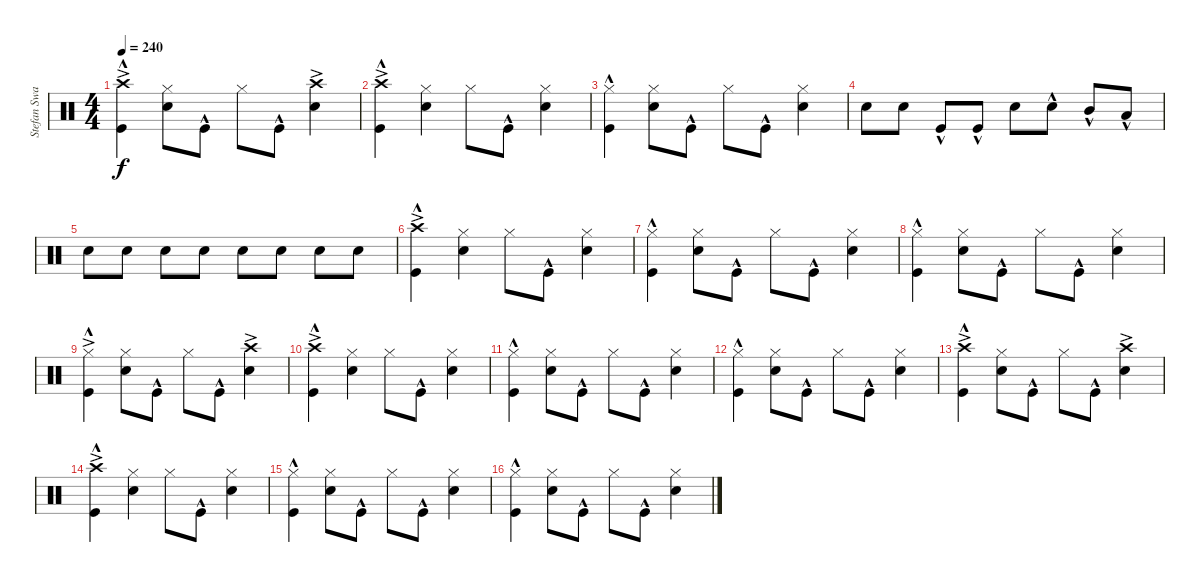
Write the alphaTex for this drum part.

\track ("Stefan Swarztmann" "Stefan Swa") {instrument percussion}
\staff {score}
\articulation defaults
\ts (4 4)
\tempo 240
\clef neutral
\ks c
("Crash high (hit)"{ac} "Kick (hit)"{hac}).4{dy f} ("Hi-Hat (closed)" "Snare (hit) 2").8 "Kick (hit)"{hac}.8 "Hi-Hat (closed)".8 "Kick (hit)"{hac}.8 ("Crash high (hit)"{ac} "Snare (hit) 2").4 |
("Crash high (hit)"{ac} "Kick (hit)"{hac}).4 ("Hi-Hat (closed)" "Snare (hit) 2").4 "Hi-Hat (closed)".8 "Kick (hit)"{hac}.8 ("Hi-Hat (closed)" "Snare (hit) 2").4 |
("Hi-Hat (closed)" "Kick (hit)"{hac}).4 ("Hi-Hat (closed)" "Snare (hit) 2").8 "Kick (hit)"{hac}.8 "Hi-Hat (closed)".8 "Kick (hit)"{hac}.8 ("Hi-Hat (closed)" "Snare (hit) 2").4 |
"Snare (hit) 2".8 "Snare (hit) 2".8 "Kick (hit)"{hac}.8 "Kick (hit)"{hac}.8 "Snare (hit) 2".8 "Snare (hit) 2"{hac}.8 "Mid Tom (hit)"{hac}.8 "Low Tom (hit)"{hac}.8 |
"Snare (hit) 2".8 "Snare (hit) 2".8 "Snare (hit) 2".8 "Snare (hit) 2".8 "Snare (hit) 2".8 "Snare (hit) 2".8 "Snare (hit) 2".8 "Snare (hit) 2".8 |
("Crash high (hit)"{ac} "Kick (hit)"{hac}).4 ("Hi-Hat (closed)" "Snare (hit) 2").4 "Hi-Hat (closed)".8 "Kick (hit)"{hac}.8 ("Hi-Hat (closed)" "Snare (hit) 2").4 |
("Hi-Hat (closed)" "Kick (hit)"{hac}).4 ("Hi-Hat (closed)" "Snare (hit) 2").8 "Kick (hit)"{hac}.8 "Hi-Hat (closed)".8 "Kick (hit)"{hac}.8 ("Hi-Hat (closed)" "Snare (hit) 2").4 |
("Hi-Hat (closed)" "Kick (hit)"{hac}).4 ("Hi-Hat (closed)" "Snare (hit) 2").8 "Kick (hit)"{hac}.8 "Hi-Hat (closed)".8 "Kick (hit)"{hac}.8 ("Hi-Hat (closed)" "Snare (hit) 2").4 |
("Hi-Hat (closed)"{ac} "Kick (hit)"{hac}).4 ("Hi-Hat (closed)" "Snare (hit) 2").8 "Kick (hit)"{hac}.8 "Hi-Hat (closed)".8 "Kick (hit)"{hac}.8 ("Crash high (hit)"{ac} "Snare (hit) 2").4 |
("Crash high (hit)"{ac} "Kick (hit)"{hac}).4 ("Hi-Hat (closed)" "Snare (hit) 2").4 "Hi-Hat (closed)".8 "Kick (hit)"{hac}.8 ("Hi-Hat (closed)" "Snare (hit) 2").4 |
("Hi-Hat (closed)" "Kick (hit)"{hac}).4 ("Hi-Hat (closed)" "Snare (hit) 2").8 "Kick (hit)"{hac}.8 "Hi-Hat (closed)".8 "Kick (hit)"{hac}.8 ("Hi-Hat (closed)" "Snare (hit) 2").4 |
("Hi-Hat (closed)" "Kick (hit)"{hac}).4 ("Hi-Hat (closed)" "Snare (hit) 2").8 "Kick (hit)"{hac}.8 "Hi-Hat (closed)".8 "Kick (hit)"{hac}.8 ("Hi-Hat (closed)" "Snare (hit) 2").4 |
("Crash high (hit)"{ac} "Kick (hit)"{hac}).4 ("Hi-Hat (closed)" "Snare (hit) 2").8 "Kick (hit)"{hac}.8 "Hi-Hat (closed)".8 "Kick (hit)"{hac}.8 ("Crash high (hit)"{ac} "Snare (hit) 2").4 |
("Crash high (hit)"{ac} "Kick (hit)"{hac}).4 ("Hi-Hat (closed)" "Snare (hit) 2").4 "Hi-Hat (closed)".8 "Kick (hit)"{hac}.8 ("Hi-Hat (closed)" "Snare (hit) 2").4 |
("Hi-Hat (closed)" "Kick (hit)"{hac}).4 ("Hi-Hat (closed)" "Snare (hit) 2").8 "Kick (hit)"{hac}.8 "Hi-Hat (closed)".8 "Kick (hit)"{hac}.8 ("Hi-Hat (closed)" "Snare (hit) 2").4 |
("Hi-Hat (closed)" "Kick (hit)"{hac}).4 ("Hi-Hat (closed)" "Snare (hit) 2").8 "Kick (hit)"{hac}.8 "Hi-Hat (closed)".8 "Kick (hit)"{hac}.8 ("Hi-Hat (closed)" "Snare (hit) 2").4
